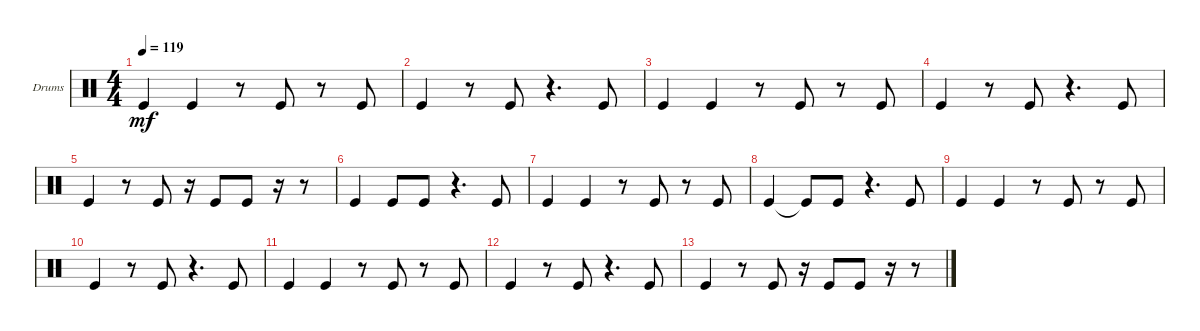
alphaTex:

\defaultSystemsLayout 4
\bracketExtendMode groupsimilarinstruments
\firstSystemTrackNameOrientation horizontal
\otherSystemsTrackNameOrientation horizontal
\track ("Kick (hit)" "Drums") {instrument percussion}
\staff {score}
\articulation defaults
\ts (4 4)
\tempo 119
\clef neutral
\scale
0.333333
\ks c "Kick (hit)".4{dy mf} "Kick (hit)".4
r.8 "Kick (hit)".8 r.8 "Kick (hit)".8 |
\scale
0.333333 "Kick (hit)".4 r.8 "Kick (hit)".8 r.4{d} "Kick (hit)".8 |
\scale
0.333333 "Kick (hit)".4 "Kick (hit)".4 r.8 "Kick (hit)".8 r.8 "Kick (hit)".8 |
\scale
0.333333 "Kick (hit)".4 r.8 "Kick (hit)".8 r.4{d} "Kick (hit)".8 |
\scale
0.333333 "Kick (hit)".4 r.8 "Kick (hit)".8 r.16 "Kick (hit)".8 "Kick (hit)".8 r.16 r.8 |
\scale
0.333333 "Kick (hit)".4 "Kick (hit)".8 "Kick (hit)".8 r.4{d} "Kick (hit)".8 |
\scale
0.333333 "Kick (hit)".4 "Kick (hit)".4 r.8 "Kick (hit)".8 r.8 "Kick (hit)".8 |
\scale
0.333333 "Kick (hit)".4 "Kick (hit)"{t}.8 "Kick (hit)".8 r.4{d} "Kick (hit)".8 |
\scale
0.333333 "Kick (hit)".4 "Kick (hit)".4 r.8 "Kick (hit)".8 r.8 "Kick (hit)".8 |
\scale
0.333333 "Kick (hit)".4 r.8 "Kick (hit)".8 r.4{d} "Kick (hit)".8 |
\scale
0.333333 "Kick (hit)".4 "Kick (hit)".4 r.8 "Kick (hit)".8 r.8 "Kick (hit)".8 |
\scale
0.333333 "Kick (hit)".4 r.8 "Kick (hit)".8 r.4{d} "Kick (hit)".8 |
\scale
0.333333 "Kick (hit)".4 r.8 "Kick (hit)".8 r.16 "Kick (hit)".8 "Kick (hit)".8 r.16 r.8 |
\scale
0.333333 |
\scale
0.333333 |
\scale
0.333333
